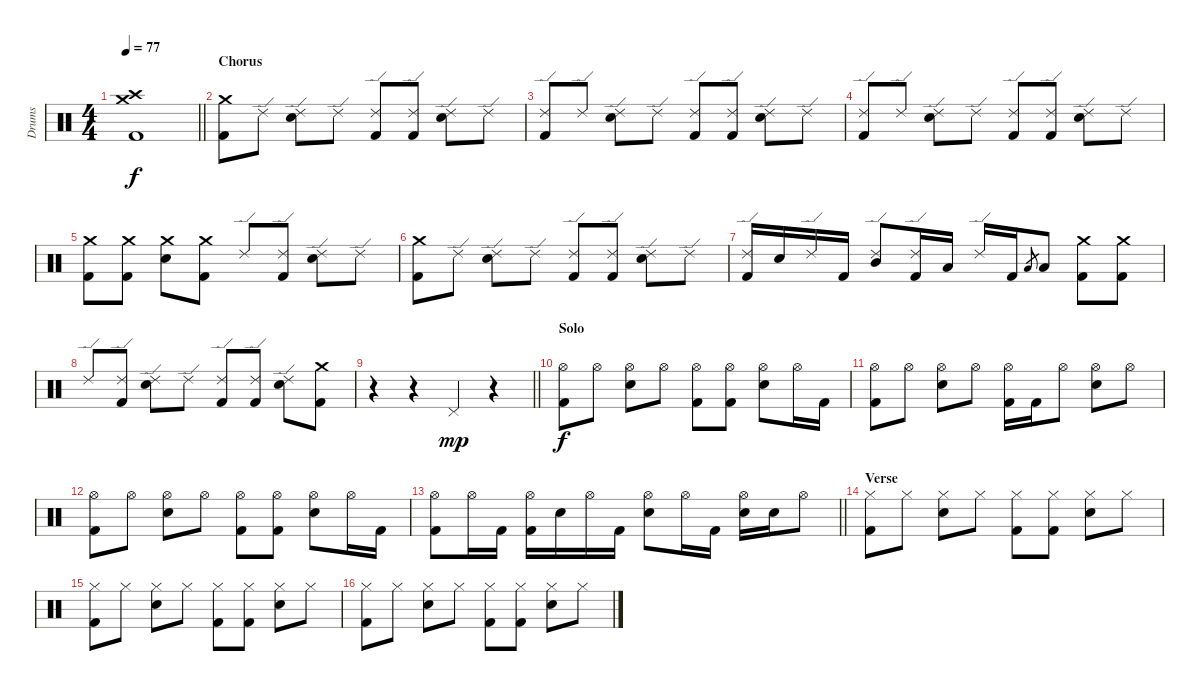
\track ("Drums" "Drums") {instrument percussion}
\staff {score}
\articulation defaults
\ts (4 4)
\tempo 77
\clef neutral
\barLineRight lightlight
\ks c
("Crash medium (hit)" "Crash high (hit)" "Kick (hit) 2").1{dy f} |
\section ("" "Chorus")
("Crash medium (hit)" "Kick (hit) 2").8 "Ride (edge) 2".8 ("Ride (edge) 2" "Electric Snare (hit)").8 "Ride (edge) 2".8 ("Ride (edge) 2" "Kick (hit) 2").8 ("Ride (edge) 2" "Kick (hit) 2").8 ("Ride (edge) 2" "Electric Snare (hit)").8 "Ride (edge) 2".8 |
("Ride (edge) 2" "Kick (hit) 2").8 "Ride (edge) 2".8 ("Ride (edge) 2" "Electric Snare (hit)").8 "Ride (edge) 2".8 ("Ride (edge) 2" "Kick (hit) 2").8 ("Ride (edge) 2" "Kick (hit) 2").8 ("Ride (edge) 2" "Electric Snare (hit)").8 "Ride (edge) 2".8 |
("Ride (edge) 2" "Kick (hit) 2").8 "Ride (edge) 2".8 ("Ride (edge) 2" "Electric Snare (hit)").8 "Ride (edge) 2".8 ("Ride (edge) 2" "Kick (hit) 2").8 ("Ride (edge) 2" "Kick (hit) 2").8 ("Ride (edge) 2" "Electric Snare (hit)").8 "Ride (edge) 2".8 |
("Crash medium (hit)" "Kick (hit) 2").8 ("Crash medium (hit)" "Kick (hit) 2").8 ("Crash medium (hit)" "Electric Snare (hit)").8 ("Crash medium (hit)" "Kick (hit) 2").8 "Ride (edge) 2".8 ("Ride (edge) 2" "Kick (hit) 2").8 ("Ride (edge) 2" "Electric Snare (hit)").8 "Ride (edge) 2".8 |
("Crash medium (hit)" "Kick (hit) 2").8 "Ride (edge) 2".8 ("Ride (edge) 2" "Electric Snare (hit)").8 "Ride (edge) 2".8 ("Ride (edge) 2" "Kick (hit) 2").8 ("Ride (edge) 2" "Kick (hit) 2").8 ("Ride (edge) 2" "Electric Snare (hit)").8 "Ride (edge) 2".8 |
("Ride (edge) 2" "Kick (hit) 2").16 "Electric Snare (hit)".16 "Ride (edge) 2".16 "Kick (hit) 2".16 ("Ride (edge) 2" "Mid Tom (hit)").8 ("Ride (edge) 2" "Kick (hit) 2").16 "Low Tom (hit)".16 "Ride (edge) 2".16 "Kick (hit) 2".16 "Low Tom (hit)".8{gr} "Low Tom (hit)".8 ("Crash medium (hit)" "Kick (hit) 2").8 ("Crash medium (hit)" "Kick (hit) 2").8 |
"Ride (edge) 2".8 ("Ride (edge) 2" "Kick (hit) 2").8 ("Ride (edge) 2" "Electric Snare (hit)").8 "Ride (edge) 2".8 ("Ride (edge) 2" "Kick (hit) 2").8 ("Ride (edge) 2" "Kick (hit) 2").8 ("Ride (edge) 2" "Electric Snare (hit)").8 ("Crash medium (hit)" "Kick (hit) 2").8 |
\barLineRight lightlight
r.4 r.4 "Pedal Hi-Hat (hit)".4{dy mp} r.4 |
\section ("" "Solo")
("Hi-Hat (open)" "Kick (hit) 2").8{dy f} "Hi-Hat (open)".8 ("Hi-Hat (open)" "Electric Snare (hit)").8 "Hi-Hat (open)".8 ("Hi-Hat (open)" "Kick (hit) 2").8 ("Hi-Hat (open)" "Kick (hit) 2").8 ("Hi-Hat (open)" "Electric Snare (hit)").8 "Hi-Hat (open)".16 "Kick (hit) 2".16 |
("Hi-Hat (open)" "Kick (hit) 2").8 "Hi-Hat (open)".8 ("Hi-Hat (open)" "Electric Snare (hit)").8 "Hi-Hat (open)".8 ("Hi-Hat (open)" "Kick (hit) 2").16 "Kick (hit) 2".16 "Hi-Hat (open)".8 ("Hi-Hat (open)" "Electric Snare (hit)").8 "Hi-Hat (open)".8 |
("Hi-Hat (open)" "Kick (hit) 2").8 "Hi-Hat (open)".8 ("Hi-Hat (open)" "Electric Snare (hit)").8 "Hi-Hat (open)".8 ("Hi-Hat (open)" "Kick (hit) 2").8 ("Hi-Hat (open)" "Kick (hit) 2").8 ("Hi-Hat (open)" "Electric Snare (hit)").8 "Hi-Hat (open)".16 "Kick (hit) 2".16 |
\barLineRight lightlight
("Hi-Hat (open)" "Kick (hit) 2").8 "Hi-Hat (open)".16 "Kick (hit) 2".16 ("Hi-Hat (open)" "Kick (hit) 2").16 "Electric Snare (hit)".16 "Hi-Hat (open)".16 "Kick (hit) 2".16 ("Hi-Hat (open)" "Electric Snare (hit)").8 "Hi-Hat (open)".16 "Kick (hit) 2".16 ("Hi-Hat (open)" "Electric Snare (hit)").16 "Electric Snare (hit)".16 "Hi-Hat (open)".8 |
\section ("" "Verse")
("Hi-Hat (closed)" "Kick (hit) 2").8 "Hi-Hat (closed)".8 ("Hi-Hat (closed)" "Electric Snare (hit)").8 "Hi-Hat (closed)".8 ("Hi-Hat (closed)" "Kick (hit) 2").8 ("Hi-Hat (closed)" "Kick (hit) 2").8 ("Hi-Hat (closed)" "Electric Snare (hit)").8 "Hi-Hat (closed)".8 |
("Hi-Hat (closed)" "Kick (hit) 2").8 "Hi-Hat (closed)".8 ("Hi-Hat (closed)" "Electric Snare (hit)").8 "Hi-Hat (closed)".8 ("Hi-Hat (closed)" "Kick (hit) 2").8 ("Hi-Hat (closed)" "Kick (hit) 2").8 ("Hi-Hat (closed)" "Electric Snare (hit)").8 "Hi-Hat (closed)".8 |
("Hi-Hat (closed)" "Kick (hit) 2").8 "Hi-Hat (closed)".8 ("Hi-Hat (closed)" "Electric Snare (hit)").8 "Hi-Hat (closed)".8 ("Hi-Hat (closed)" "Kick (hit) 2").8 ("Hi-Hat (closed)" "Kick (hit) 2").8 ("Hi-Hat (closed)" "Electric Snare (hit)").8 "Hi-Hat (closed)".8
